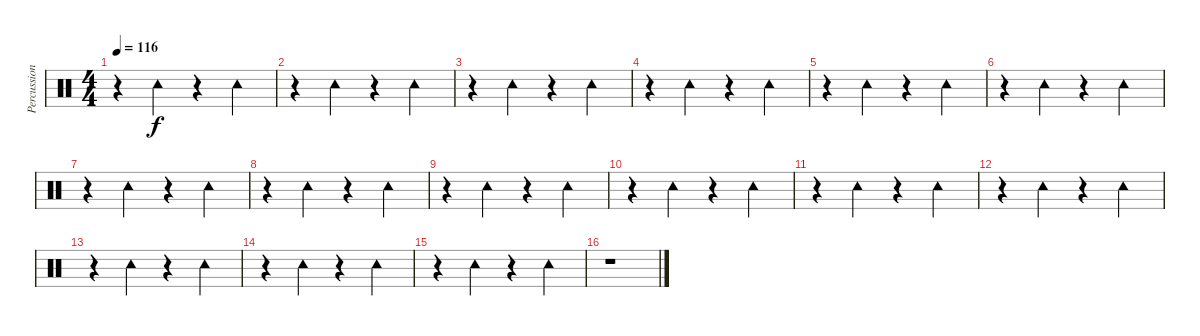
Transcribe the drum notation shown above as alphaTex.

\track ("Percussion" "Percussion") {instrument percussion}
\staff {score}
\articulation defaults
\ts (4 4)
\tempo 116
\clef neutral
\ks c
r.4{dy f} "Tambourine (hit)".4 r.4 "Tambourine (hit)".4 |
r.4 "Tambourine (hit)".4 r.4 "Tambourine (hit)".4 |
r.4 "Tambourine (hit)".4 r.4 "Tambourine (hit)".4 |
r.4 "Tambourine (hit)".4 r.4 "Tambourine (hit)".4 |
r.4 "Tambourine (hit)".4 r.4 "Tambourine (hit)".4 |
r.4 "Tambourine (hit)".4 r.4 "Tambourine (hit)".4 |
r.4 "Tambourine (hit)".4 r.4 "Tambourine (hit)".4 |
r.4 "Tambourine (hit)".4 r.4 "Tambourine (hit)".4 |
r.4 "Tambourine (hit)".4 r.4 "Tambourine (hit)".4 |
r.4 "Tambourine (hit)".4 r.4 "Tambourine (hit)".4 |
r.4 "Tambourine (hit)".4 r.4 "Tambourine (hit)".4 |
r.4 "Tambourine (hit)".4 r.4 "Tambourine (hit)".4 |
r.4 "Tambourine (hit)".4 r.4 "Tambourine (hit)".4 |
r.4 "Tambourine (hit)".4 r.4 "Tambourine (hit)".4 |
r.4 "Tambourine (hit)".4 r.4 "Tambourine (hit)".4 |
r.1
